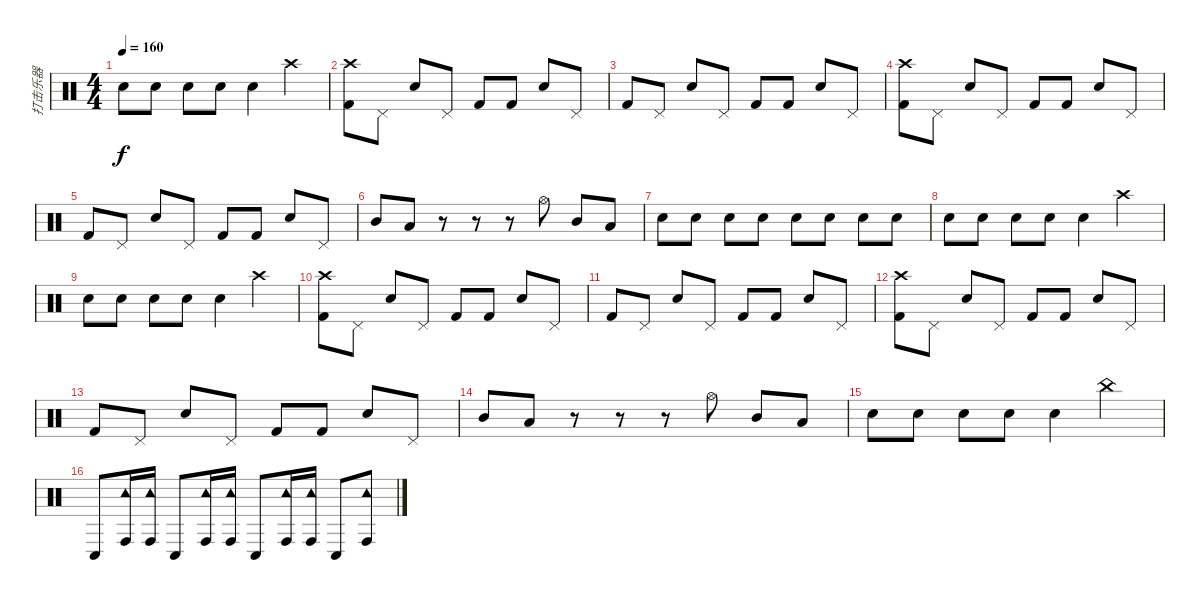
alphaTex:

\track ("打击乐器" "打击乐器") {instrument percussion}
\staff {score}
\articulation defaults
\ts (4 4)
\tempo 160
\clef neutral
\ks c "Snare (hit) 2".8{dy f} "Snare (hit) 2".8 "Snare (hit) 2".8 "Snare (hit) 2".8 "Snare (hit) 2".4 "Crash high (hit)".4
|
("Crash high (hit)" "Kick (hit) 2").8 "Pedal Hi-Hat (hit)".8 "Snare (hit) 2".8 "Pedal Hi-Hat (hit)".8 "Kick (hit) 2".8 "Kick (hit) 2".8 "Snare (hit) 2".8 "Pedal Hi-Hat (hit)".8 |
"Kick (hit) 2".8 "Pedal Hi-Hat (hit)".8 "Snare (hit) 2".8 "Pedal Hi-Hat (hit)".8 "Kick (hit) 2".8 "Kick (hit) 2".8 "Snare (hit) 2".8 "Pedal Hi-Hat (hit)".8 |
("Crash high (hit)" "Kick (hit) 2").8 "Pedal Hi-Hat (hit)".8 "Snare (hit) 2".8 "Pedal Hi-Hat (hit)".8 "Kick (hit) 2".8 "Kick (hit) 2".8 "Snare (hit) 2".8 "Pedal Hi-Hat (hit)".8 |
"Kick (hit) 2".8 "Pedal Hi-Hat (hit)".8 "Snare (hit) 2".8 "Pedal Hi-Hat (hit)".8 "Kick (hit) 2".8 "Kick (hit) 2".8 "Snare (hit) 2".8 "Pedal Hi-Hat (hit)".8 |
"Mid Tom (hit)".8 "Low Tom (hit)".8 r.8 r.8 r.8 "Hi-Hat (open)".8 "Mid Tom (hit)".8 "Low Tom (hit)".8 |
"Snare (hit) 2".8 "Snare (hit) 2".8 "Snare (hit) 2".8 "Snare (hit) 2".8 "Snare (hit) 2".8 "Snare (hit) 2".8 "Snare (hit) 2".8 "Snare (hit) 2".8 |
"Snare (hit) 2".8 "Snare (hit) 2".8 "Snare (hit) 2".8 "Snare (hit) 2".8 "Snare (hit) 2".4 "Crash high (hit)".4 |
"Snare (hit) 2".8 "Snare (hit) 2".8 "Snare (hit) 2".8 "Snare (hit) 2".8 "Snare (hit) 2".4 "Crash high (hit)".4 |
("Crash high (hit)" "Kick (hit) 2").8 "Pedal Hi-Hat (hit)".8 "Snare (hit) 2".8 "Pedal Hi-Hat (hit)".8 "Kick (hit) 2".8 "Kick (hit) 2".8 "Snare (hit) 2".8 "Pedal Hi-Hat (hit)".8 |
"Kick (hit) 2".8 "Pedal Hi-Hat (hit)".8 "Snare (hit) 2".8 "Pedal Hi-Hat (hit)".8 "Kick (hit) 2".8 "Kick (hit) 2".8 "Snare (hit) 2".8 "Pedal Hi-Hat (hit)".8 |
("Crash high (hit)" "Kick (hit) 2").8 "Pedal Hi-Hat (hit)".8 "Snare (hit) 2".8 "Pedal Hi-Hat (hit)".8 "Kick (hit) 2".8 "Kick (hit) 2".8 "Snare (hit) 2".8 "Pedal Hi-Hat (hit)".8 |
"Kick (hit) 2".8 "Pedal Hi-Hat (hit)".8 "Snare (hit) 2".8 "Pedal Hi-Hat (hit)".8 "Kick (hit) 2".8 "Kick (hit) 2".8 "Snare (hit) 2".8 "Pedal Hi-Hat (hit)".8 |
"Mid Tom (hit)".8 "Low Tom (hit)".8 r.8 r.8 r.8 "Hi-Hat (open)".8 "Mid Tom (hit)".8 "Low Tom (hit)".8 |
"Snare (hit) 2".8 "Snare (hit) 2".8 "Snare (hit) 2".8 "Snare (hit) 2".8 "Snare (hit) 2".4 "China (hit)".4 |
"Conga low (hit)".8 ("Tambourine (hit)" "Conga high (hit)").16 ("Tambourine (hit)" "Conga high (hit)").16 "Conga low (hit)".8 ("Tambourine (hit)" "Conga high (hit)").16 ("Tambourine (hit)" "Conga high (hit)").16 "Conga low (hit)".8 ("Tambourine (hit)" "Conga high (hit)").16 ("Tambourine (hit)" "Conga high (hit)").16 "Conga low (hit)".8 ("Tambourine (hit)" "Conga high (hit)").8
